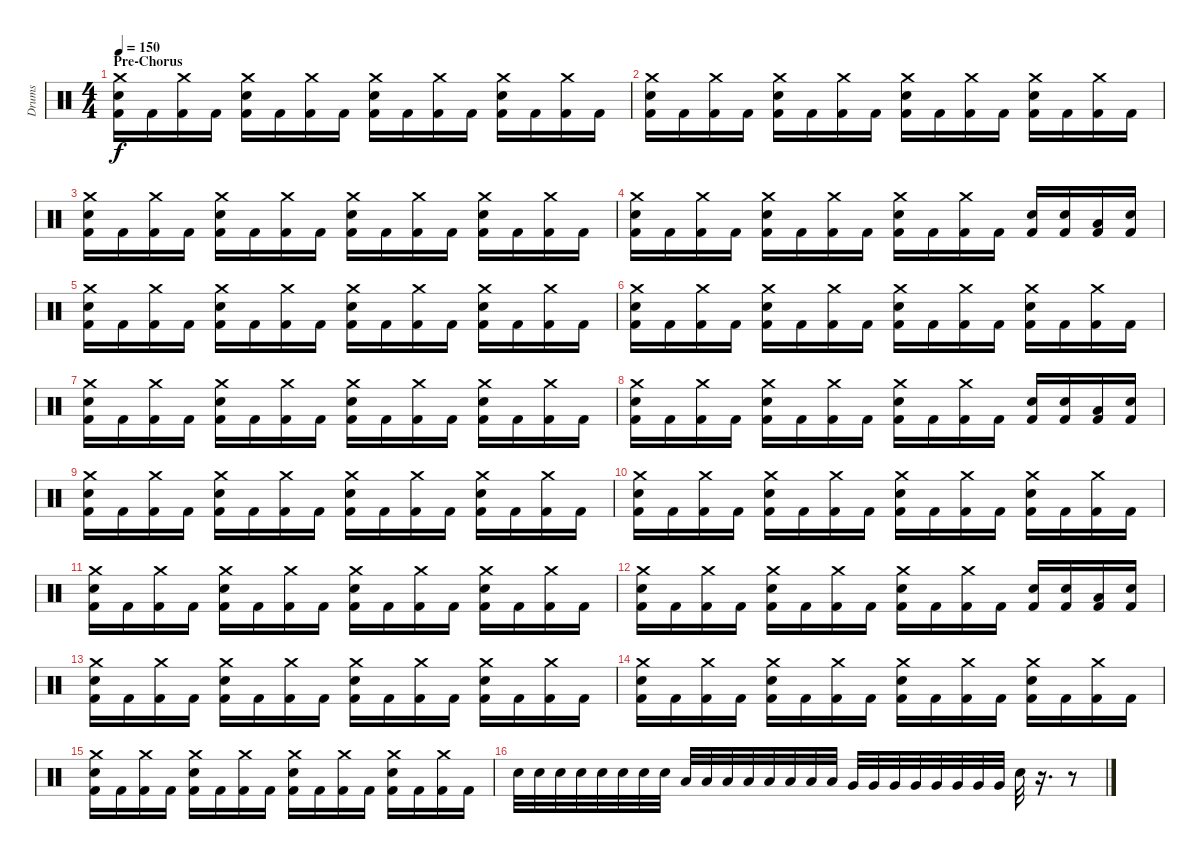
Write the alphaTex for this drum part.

\track ("Drums" "Drums") {instrument percussion}
\staff {score}
\articulation defaults
\ts (4 4)
\section ("" "Pre-Chorus")
\tempo 150
\clef neutral
\ks c
("Crash medium (hit)" "Electric Snare (hit)" "Kick (hit) 2").16{dy f} "Kick (hit) 2".16 ("Crash medium (hit)" "Kick (hit) 2").16 "Kick (hit) 2".16 ("Crash medium (hit)" "Electric Snare (hit)" "Kick (hit) 2").16 "Kick (hit) 2".16 ("Crash medium (hit)" "Kick (hit) 2").16 "Kick (hit) 2".16 ("Crash medium (hit)" "Electric Snare (hit)" "Kick (hit) 2").16 "Kick (hit) 2".16 ("Crash medium (hit)" "Kick (hit) 2").16 "Kick (hit) 2".16 ("Crash medium (hit)" "Electric Snare (hit)" "Kick (hit) 2").16 "Kick (hit) 2".16 ("Crash medium (hit)" "Kick (hit) 2").16 "Kick (hit) 2".16 |
("Crash medium (hit)" "Electric Snare (hit)" "Kick (hit) 2").16 "Kick (hit) 2".16 ("Crash medium (hit)" "Kick (hit) 2").16 "Kick (hit) 2".16 ("Crash medium (hit)" "Electric Snare (hit)" "Kick (hit) 2").16 "Kick (hit) 2".16 ("Crash medium (hit)" "Kick (hit) 2").16 "Kick (hit) 2".16 ("Crash medium (hit)" "Electric Snare (hit)" "Kick (hit) 2").16 "Kick (hit) 2".16 ("Crash medium (hit)" "Kick (hit) 2").16 "Kick (hit) 2".16 ("Crash medium (hit)" "Electric Snare (hit)" "Kick (hit) 2").16 "Kick (hit) 2".16 ("Crash medium (hit)" "Kick (hit) 2").16 "Kick (hit) 2".16 |
("Crash medium (hit)" "Electric Snare (hit)" "Kick (hit) 2").16 "Kick (hit) 2".16 ("Crash medium (hit)" "Kick (hit) 2").16 "Kick (hit) 2".16 ("Crash medium (hit)" "Electric Snare (hit)" "Kick (hit) 2").16 "Kick (hit) 2".16 ("Crash medium (hit)" "Kick (hit) 2").16 "Kick (hit) 2".16 ("Crash medium (hit)" "Electric Snare (hit)" "Kick (hit) 2").16 "Kick (hit) 2".16 ("Crash medium (hit)" "Kick (hit) 2").16 "Kick (hit) 2".16 ("Crash medium (hit)" "Electric Snare (hit)" "Kick (hit) 2").16 "Kick (hit) 2".16 ("Crash medium (hit)" "Kick (hit) 2").16 "Kick (hit) 2".16 |
("Crash medium (hit)" "Electric Snare (hit)" "Kick (hit) 2").16 "Kick (hit) 2".16 ("Crash medium (hit)" "Kick (hit) 2").16 "Kick (hit) 2".16 ("Crash medium (hit)" "Electric Snare (hit)" "Kick (hit) 2").16 "Kick (hit) 2".16 ("Crash medium (hit)" "Kick (hit) 2").16 "Kick (hit) 2".16 ("Crash medium (hit)" "Electric Snare (hit)" "Kick (hit) 2").16 "Kick (hit) 2".16 ("Crash medium (hit)" "Kick (hit) 2").16 "Kick (hit) 2".16 ("Electric Snare (hit)" "Kick (hit) 2").16 ("Electric Snare (hit)" "Kick (hit) 2").16 ("Low Tom (hit)" "Kick (hit) 2").16 ("Electric Snare (hit)" "Kick (hit) 2").16 |
("Crash medium (hit)" "Electric Snare (hit)" "Kick (hit) 2").16 "Kick (hit) 2".16 ("Crash medium (hit)" "Kick (hit) 2").16 "Kick (hit) 2".16 ("Crash medium (hit)" "Electric Snare (hit)" "Kick (hit) 2").16 "Kick (hit) 2".16 ("Crash medium (hit)" "Kick (hit) 2").16 "Kick (hit) 2".16 ("Crash medium (hit)" "Electric Snare (hit)" "Kick (hit) 2").16 "Kick (hit) 2".16 ("Crash medium (hit)" "Kick (hit) 2").16 "Kick (hit) 2".16 ("Crash medium (hit)" "Electric Snare (hit)" "Kick (hit) 2").16 "Kick (hit) 2".16 ("Crash medium (hit)" "Kick (hit) 2").16 "Kick (hit) 2".16 |
("Crash medium (hit)" "Electric Snare (hit)" "Kick (hit) 2").16 "Kick (hit) 2".16 ("Crash medium (hit)" "Kick (hit) 2").16 "Kick (hit) 2".16 ("Crash medium (hit)" "Electric Snare (hit)" "Kick (hit) 2").16 "Kick (hit) 2".16 ("Crash medium (hit)" "Kick (hit) 2").16 "Kick (hit) 2".16 ("Crash medium (hit)" "Electric Snare (hit)" "Kick (hit) 2").16 "Kick (hit) 2".16 ("Crash medium (hit)" "Kick (hit) 2").16 "Kick (hit) 2".16 ("Crash medium (hit)" "Electric Snare (hit)" "Kick (hit) 2").16 "Kick (hit) 2".16 ("Crash medium (hit)" "Kick (hit) 2").16 "Kick (hit) 2".16 |
("Crash medium (hit)" "Electric Snare (hit)" "Kick (hit) 2").16 "Kick (hit) 2".16 ("Crash medium (hit)" "Kick (hit) 2").16 "Kick (hit) 2".16 ("Crash medium (hit)" "Electric Snare (hit)" "Kick (hit) 2").16 "Kick (hit) 2".16 ("Crash medium (hit)" "Kick (hit) 2").16 "Kick (hit) 2".16 ("Crash medium (hit)" "Electric Snare (hit)" "Kick (hit) 2").16 "Kick (hit) 2".16 ("Crash medium (hit)" "Kick (hit) 2").16 "Kick (hit) 2".16 ("Crash medium (hit)" "Electric Snare (hit)" "Kick (hit) 2").16 "Kick (hit) 2".16 ("Crash medium (hit)" "Kick (hit) 2").16 "Kick (hit) 2".16 |
("Crash medium (hit)" "Electric Snare (hit)" "Kick (hit) 2").16 "Kick (hit) 2".16 ("Crash medium (hit)" "Kick (hit) 2").16 "Kick (hit) 2".16 ("Crash medium (hit)" "Electric Snare (hit)" "Kick (hit) 2").16 "Kick (hit) 2".16 ("Crash medium (hit)" "Kick (hit) 2").16 "Kick (hit) 2".16 ("Crash medium (hit)" "Electric Snare (hit)" "Kick (hit) 2").16 "Kick (hit) 2".16 ("Crash medium (hit)" "Kick (hit) 2").16 "Kick (hit) 2".16 ("Electric Snare (hit)" "Kick (hit) 2").16 ("Electric Snare (hit)" "Kick (hit) 2").16 ("Low Tom (hit)" "Kick (hit) 2").16 ("Electric Snare (hit)" "Kick (hit) 2").16 |
("Crash medium (hit)" "Electric Snare (hit)" "Kick (hit) 2").16 "Kick (hit) 2".16 ("Crash medium (hit)" "Kick (hit) 2").16 "Kick (hit) 2".16 ("Crash medium (hit)" "Electric Snare (hit)" "Kick (hit) 2").16 "Kick (hit) 2".16 ("Crash medium (hit)" "Kick (hit) 2").16 "Kick (hit) 2".16 ("Crash medium (hit)" "Electric Snare (hit)" "Kick (hit) 2").16 "Kick (hit) 2".16 ("Crash medium (hit)" "Kick (hit) 2").16 "Kick (hit) 2".16 ("Crash medium (hit)" "Electric Snare (hit)" "Kick (hit) 2").16 "Kick (hit) 2".16 ("Crash medium (hit)" "Kick (hit) 2").16 "Kick (hit) 2".16 |
("Crash medium (hit)" "Electric Snare (hit)" "Kick (hit) 2").16 "Kick (hit) 2".16 ("Crash medium (hit)" "Kick (hit) 2").16 "Kick (hit) 2".16 ("Crash medium (hit)" "Electric Snare (hit)" "Kick (hit) 2").16 "Kick (hit) 2".16 ("Crash medium (hit)" "Kick (hit) 2").16 "Kick (hit) 2".16 ("Crash medium (hit)" "Electric Snare (hit)" "Kick (hit) 2").16 "Kick (hit) 2".16 ("Crash medium (hit)" "Kick (hit) 2").16 "Kick (hit) 2".16 ("Crash medium (hit)" "Electric Snare (hit)" "Kick (hit) 2").16 "Kick (hit) 2".16 ("Crash medium (hit)" "Kick (hit) 2").16 "Kick (hit) 2".16 |
("Crash medium (hit)" "Electric Snare (hit)" "Kick (hit) 2").16 "Kick (hit) 2".16 ("Crash medium (hit)" "Kick (hit) 2").16 "Kick (hit) 2".16 ("Crash medium (hit)" "Electric Snare (hit)" "Kick (hit) 2").16 "Kick (hit) 2".16 ("Crash medium (hit)" "Kick (hit) 2").16 "Kick (hit) 2".16 ("Crash medium (hit)" "Electric Snare (hit)" "Kick (hit) 2").16 "Kick (hit) 2".16 ("Crash medium (hit)" "Kick (hit) 2").16 "Kick (hit) 2".16 ("Crash medium (hit)" "Electric Snare (hit)" "Kick (hit) 2").16 "Kick (hit) 2".16 ("Crash medium (hit)" "Kick (hit) 2").16 "Kick (hit) 2".16 |
("Crash medium (hit)" "Electric Snare (hit)" "Kick (hit) 2").16 "Kick (hit) 2".16 ("Crash medium (hit)" "Kick (hit) 2").16 "Kick (hit) 2".16 ("Crash medium (hit)" "Electric Snare (hit)" "Kick (hit) 2").16 "Kick (hit) 2".16 ("Crash medium (hit)" "Kick (hit) 2").16 "Kick (hit) 2".16 ("Crash medium (hit)" "Electric Snare (hit)" "Kick (hit) 2").16 "Kick (hit) 2".16 ("Crash medium (hit)" "Kick (hit) 2").16 "Kick (hit) 2".16 ("Electric Snare (hit)" "Kick (hit) 2").16 ("Electric Snare (hit)" "Kick (hit) 2").16 ("Low Tom (hit)" "Kick (hit) 2").16 ("Electric Snare (hit)" "Kick (hit) 2").16 |
("Crash medium (hit)" "Electric Snare (hit)" "Kick (hit) 2").16 "Kick (hit) 2".16 ("Crash medium (hit)" "Kick (hit) 2").16 "Kick (hit) 2".16 ("Crash medium (hit)" "Electric Snare (hit)" "Kick (hit) 2").16 "Kick (hit) 2".16 ("Crash medium (hit)" "Kick (hit) 2").16 "Kick (hit) 2".16 ("Crash medium (hit)" "Electric Snare (hit)" "Kick (hit) 2").16 "Kick (hit) 2".16 ("Crash medium (hit)" "Kick (hit) 2").16 "Kick (hit) 2".16 ("Crash medium (hit)" "Electric Snare (hit)" "Kick (hit) 2").16 "Kick (hit) 2".16 ("Crash medium (hit)" "Kick (hit) 2").16 "Kick (hit) 2".16 |
("Crash medium (hit)" "Electric Snare (hit)" "Kick (hit) 2").16 "Kick (hit) 2".16 ("Crash medium (hit)" "Kick (hit) 2").16 "Kick (hit) 2".16 ("Crash medium (hit)" "Electric Snare (hit)" "Kick (hit) 2").16 "Kick (hit) 2".16 ("Crash medium (hit)" "Kick (hit) 2").16 "Kick (hit) 2".16 ("Crash medium (hit)" "Electric Snare (hit)" "Kick (hit) 2").16 "Kick (hit) 2".16 ("Crash medium (hit)" "Kick (hit) 2").16 "Kick (hit) 2".16 ("Crash medium (hit)" "Electric Snare (hit)" "Kick (hit) 2").16 "Kick (hit) 2".16 ("Crash medium (hit)" "Kick (hit) 2").16 "Kick (hit) 2".16 |
("Crash medium (hit)" "Electric Snare (hit)" "Kick (hit) 2").16 "Kick (hit) 2".16 ("Crash medium (hit)" "Kick (hit) 2").16 "Kick (hit) 2".16 ("Crash medium (hit)" "Electric Snare (hit)" "Kick (hit) 2").16 "Kick (hit) 2".16 ("Crash medium (hit)" "Kick (hit) 2").16 "Kick (hit) 2".16 ("Crash medium (hit)" "Electric Snare (hit)" "Kick (hit) 2").16 "Kick (hit) 2".16 ("Crash medium (hit)" "Kick (hit) 2").16 "Kick (hit) 2".16 ("Crash medium (hit)" "Electric Snare (hit)" "Kick (hit) 2").16 "Kick (hit) 2".16 ("Crash medium (hit)" "Kick (hit) 2").16 "Kick (hit) 2".16 |
"Electric Snare (hit)".32 "Electric Snare (hit)".32 "Electric Snare (hit)".32 "Electric Snare (hit)".32 "Electric Snare (hit)".32 "Electric Snare (hit)".32 "Electric Snare (hit)".32 "Electric Snare (hit)".32 "Low Tom (hit)".32 "Low Tom (hit)".32 "Low Tom (hit)".32 "Low Tom (hit)".32 "Low Tom (hit)".32 "Low Tom (hit)".32 "Low Tom (hit)".32 "Low Tom (hit)".32 "Very Low Tom (hit)".32 "Very Low Tom (hit)".32 "Very Low Tom (hit)".32 "Very Low Tom (hit)".32 "Very Low Tom (hit)".32 "Very Low Tom (hit)".32 "Very Low Tom (hit)".32 "Very Low Tom (hit)".32 "Electric Snare (hit)".32 r.16{d} r.8
